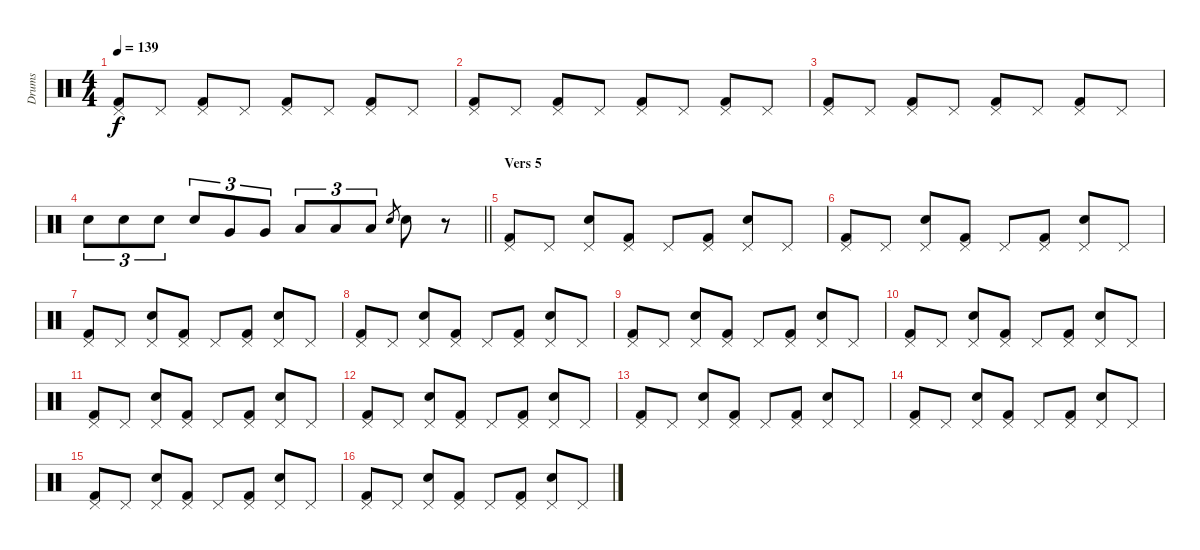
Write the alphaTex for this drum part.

\track ("Drums" "Drums") {instrument percussion}
\staff {score}
\articulation defaults
\ts (4 4)
\tempo 139
\clef neutral
\ks c
("Pedal Hi-Hat (hit)" "Kick (hit) 2").8{dy f} "Pedal Hi-Hat (hit)".8 ("Pedal Hi-Hat (hit)" "Kick (hit) 2").8 "Pedal Hi-Hat (hit)".8 ("Pedal Hi-Hat (hit)" "Kick (hit) 2").8 "Pedal Hi-Hat (hit)".8 ("Pedal Hi-Hat (hit)" "Kick (hit) 2").8 "Pedal Hi-Hat (hit)".8 |
("Pedal Hi-Hat (hit)" "Kick (hit) 2").8 "Pedal Hi-Hat (hit)".8 ("Pedal Hi-Hat (hit)" "Kick (hit) 2").8 "Pedal Hi-Hat (hit)".8 ("Pedal Hi-Hat (hit)" "Kick (hit) 2").8 "Pedal Hi-Hat (hit)".8 ("Pedal Hi-Hat (hit)" "Kick (hit) 2").8 "Pedal Hi-Hat (hit)".8 |
("Pedal Hi-Hat (hit)" "Kick (hit) 2").8 "Pedal Hi-Hat (hit)".8 ("Pedal Hi-Hat (hit)" "Kick (hit) 2").8 "Pedal Hi-Hat (hit)".8 ("Pedal Hi-Hat (hit)" "Kick (hit) 2").8 "Pedal Hi-Hat (hit)".8 ("Pedal Hi-Hat (hit)" "Kick (hit) 2").8 "Pedal Hi-Hat (hit)".8 |
\barLineRight lightlight "Snare (hit) 2".8{tu (3 2)} "Snare (hit) 2".8{tu (3 2)} "Snare (hit) 2".8{tu (3 2)} "Snare (hit) 2".8{tu (3 2)} "Very Low Tom (hit)".8{tu (3 2)} "Very Low Tom (hit)".8{tu (3 2)} "Low Floor Tom (hit)".8{tu (3 2)} "Low Floor Tom (hit)".8{tu (3 2)} "Low Floor Tom (hit)".8{tu (3 2)} "Snare (hit) 2".8{gr} "Snare (hit) 2".8
r.8 |
\section ("" "Vers 5")
("Pedal Hi-Hat (hit)" "Kick (hit) 2").8 "Pedal Hi-Hat (hit)".8 ("Pedal Hi-Hat (hit)" "Snare (hit) 2").8 ("Pedal Hi-Hat (hit)" "Kick (hit) 2").8 "Pedal Hi-Hat (hit)".8 ("Pedal Hi-Hat (hit)" "Kick (hit) 2").8 ("Pedal Hi-Hat (hit)" "Snare (hit) 2").8 "Pedal Hi-Hat (hit)".8 |
("Pedal Hi-Hat (hit)" "Kick (hit) 2").8 "Pedal Hi-Hat (hit)".8 ("Pedal Hi-Hat (hit)" "Snare (hit) 2").8 ("Pedal Hi-Hat (hit)" "Kick (hit) 2").8 "Pedal Hi-Hat (hit)".8 ("Pedal Hi-Hat (hit)" "Kick (hit) 2").8 ("Pedal Hi-Hat (hit)" "Snare (hit) 2").8 "Pedal Hi-Hat (hit)".8 |
("Pedal Hi-Hat (hit)" "Kick (hit) 2").8 "Pedal Hi-Hat (hit)".8 ("Pedal Hi-Hat (hit)" "Snare (hit) 2").8 ("Pedal Hi-Hat (hit)" "Kick (hit) 2").8 "Pedal Hi-Hat (hit)".8 ("Pedal Hi-Hat (hit)" "Kick (hit) 2").8 ("Pedal Hi-Hat (hit)" "Snare (hit) 2").8 "Pedal Hi-Hat (hit)".8 |
("Pedal Hi-Hat (hit)" "Kick (hit) 2").8 "Pedal Hi-Hat (hit)".8 ("Pedal Hi-Hat (hit)" "Snare (hit) 2").8 ("Pedal Hi-Hat (hit)" "Kick (hit) 2").8 "Pedal Hi-Hat (hit)".8 ("Pedal Hi-Hat (hit)" "Kick (hit) 2").8 ("Pedal Hi-Hat (hit)" "Snare (hit) 2").8 "Pedal Hi-Hat (hit)".8 |
("Pedal Hi-Hat (hit)" "Kick (hit) 2").8 "Pedal Hi-Hat (hit)".8 ("Pedal Hi-Hat (hit)" "Snare (hit) 2").8 ("Pedal Hi-Hat (hit)" "Kick (hit) 2").8 "Pedal Hi-Hat (hit)".8 ("Pedal Hi-Hat (hit)" "Kick (hit) 2").8 ("Pedal Hi-Hat (hit)" "Snare (hit) 2").8 "Pedal Hi-Hat (hit)".8 |
("Pedal Hi-Hat (hit)" "Kick (hit) 2").8 "Pedal Hi-Hat (hit)".8 ("Pedal Hi-Hat (hit)" "Snare (hit) 2").8 ("Pedal Hi-Hat (hit)" "Kick (hit) 2").8 "Pedal Hi-Hat (hit)".8 ("Pedal Hi-Hat (hit)" "Kick (hit) 2").8 ("Pedal Hi-Hat (hit)" "Snare (hit) 2").8 "Pedal Hi-Hat (hit)".8 |
("Pedal Hi-Hat (hit)" "Kick (hit) 2").8 "Pedal Hi-Hat (hit)".8 ("Pedal Hi-Hat (hit)" "Snare (hit) 2").8 ("Pedal Hi-Hat (hit)" "Kick (hit) 2").8 "Pedal Hi-Hat (hit)".8 ("Pedal Hi-Hat (hit)" "Kick (hit) 2").8 ("Pedal Hi-Hat (hit)" "Snare (hit) 2").8 "Pedal Hi-Hat (hit)".8 |
("Pedal Hi-Hat (hit)" "Kick (hit) 2").8 "Pedal Hi-Hat (hit)".8 ("Pedal Hi-Hat (hit)" "Snare (hit) 2").8 ("Pedal Hi-Hat (hit)" "Kick (hit) 2").8 "Pedal Hi-Hat (hit)".8 ("Pedal Hi-Hat (hit)" "Kick (hit) 2").8 ("Pedal Hi-Hat (hit)" "Snare (hit) 2").8 "Pedal Hi-Hat (hit)".8 |
("Pedal Hi-Hat (hit)" "Kick (hit) 2").8 "Pedal Hi-Hat (hit)".8 ("Pedal Hi-Hat (hit)" "Snare (hit) 2").8 ("Pedal Hi-Hat (hit)" "Kick (hit) 2").8 "Pedal Hi-Hat (hit)".8 ("Pedal Hi-Hat (hit)" "Kick (hit) 2").8 ("Pedal Hi-Hat (hit)" "Snare (hit) 2").8 "Pedal Hi-Hat (hit)".8 |
("Pedal Hi-Hat (hit)" "Kick (hit) 2").8 "Pedal Hi-Hat (hit)".8 ("Pedal Hi-Hat (hit)" "Snare (hit) 2").8 ("Pedal Hi-Hat (hit)" "Kick (hit) 2").8 "Pedal Hi-Hat (hit)".8 ("Pedal Hi-Hat (hit)" "Kick (hit) 2").8 ("Pedal Hi-Hat (hit)" "Snare (hit) 2").8 "Pedal Hi-Hat (hit)".8 |
("Pedal Hi-Hat (hit)" "Kick (hit) 2").8 "Pedal Hi-Hat (hit)".8 ("Pedal Hi-Hat (hit)" "Snare (hit) 2").8 ("Pedal Hi-Hat (hit)" "Kick (hit) 2").8 "Pedal Hi-Hat (hit)".8 ("Pedal Hi-Hat (hit)" "Kick (hit) 2").8 ("Pedal Hi-Hat (hit)" "Snare (hit) 2").8 "Pedal Hi-Hat (hit)".8 |
("Pedal Hi-Hat (hit)" "Kick (hit) 2").8 "Pedal Hi-Hat (hit)".8 ("Pedal Hi-Hat (hit)" "Snare (hit) 2").8 ("Pedal Hi-Hat (hit)" "Kick (hit) 2").8 "Pedal Hi-Hat (hit)".8 ("Pedal Hi-Hat (hit)" "Kick (hit) 2").8 ("Pedal Hi-Hat (hit)" "Snare (hit) 2").8 "Pedal Hi-Hat (hit)".8
